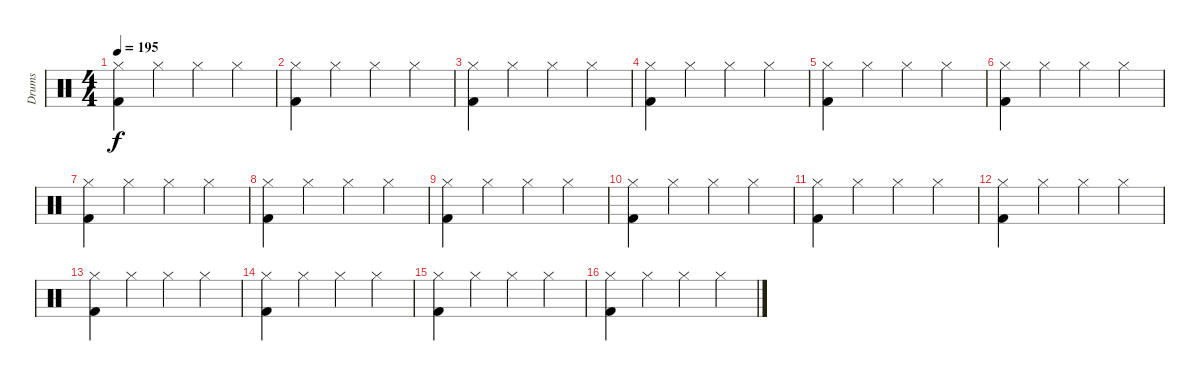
\track ("Drums" "Drums") {instrument percussion}
\staff {score}
\articulation defaults
\ts (4 4)
\tempo 195
\clef neutral
\ks c
("Hi-Hat (closed)" "Kick (hit) 2").4{dy f} "Hi-Hat (closed)".4 "Hi-Hat (closed)".4 "Hi-Hat (closed)".4 |
("Hi-Hat (closed)" "Kick (hit) 2").4 "Hi-Hat (closed)".4 "Hi-Hat (closed)".4 "Hi-Hat (closed)".4 |
("Hi-Hat (closed)" "Kick (hit) 2").4 "Hi-Hat (closed)".4 "Hi-Hat (closed)".4 "Hi-Hat (closed)".4 |
("Hi-Hat (closed)" "Kick (hit) 2").4 "Hi-Hat (closed)".4 "Hi-Hat (closed)".4 "Hi-Hat (closed)".4 |
("Hi-Hat (closed)" "Kick (hit) 2").4 "Hi-Hat (closed)".4 "Hi-Hat (closed)".4 "Hi-Hat (closed)".4 |
("Hi-Hat (closed)" "Kick (hit) 2").4 "Hi-Hat (closed)".4 "Hi-Hat (closed)".4 "Hi-Hat (closed)".4 |
("Hi-Hat (closed)" "Kick (hit) 2").4 "Hi-Hat (closed)".4 "Hi-Hat (closed)".4 "Hi-Hat (closed)".4 |
("Hi-Hat (closed)" "Kick (hit) 2").4 "Hi-Hat (closed)".4 "Hi-Hat (closed)".4 "Hi-Hat (closed)".4 |
("Hi-Hat (closed)" "Kick (hit) 2").4 "Hi-Hat (closed)".4 "Hi-Hat (closed)".4 "Hi-Hat (closed)".4 |
("Hi-Hat (closed)" "Kick (hit) 2").4 "Hi-Hat (closed)".4 "Hi-Hat (closed)".4 "Hi-Hat (closed)".4 |
("Hi-Hat (closed)" "Kick (hit) 2").4 "Hi-Hat (closed)".4 "Hi-Hat (closed)".4 "Hi-Hat (closed)".4 |
("Hi-Hat (closed)" "Kick (hit) 2").4 "Hi-Hat (closed)".4 "Hi-Hat (closed)".4 "Hi-Hat (closed)".4 |
("Hi-Hat (closed)" "Kick (hit) 2").4 "Hi-Hat (closed)".4 "Hi-Hat (closed)".4 "Hi-Hat (closed)".4 |
("Hi-Hat (closed)" "Kick (hit) 2").4 "Hi-Hat (closed)".4 "Hi-Hat (closed)".4 "Hi-Hat (closed)".4 |
("Hi-Hat (closed)" "Kick (hit) 2").4 "Hi-Hat (closed)".4 "Hi-Hat (closed)".4 "Hi-Hat (closed)".4 |
("Hi-Hat (closed)" "Kick (hit) 2").4 "Hi-Hat (closed)".4 "Hi-Hat (closed)".4 "Hi-Hat (closed)".4
